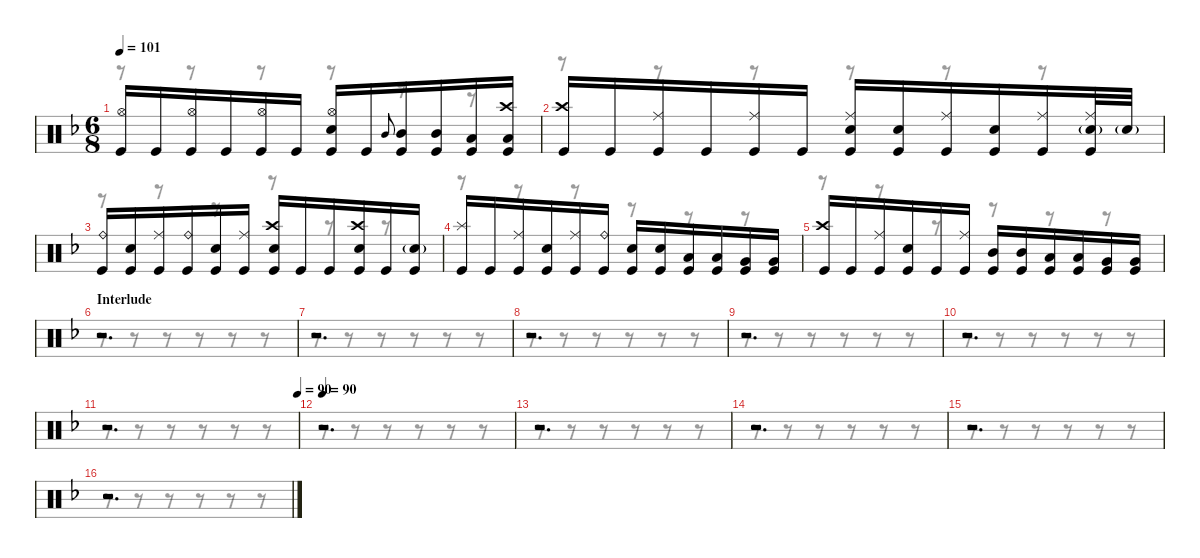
\defaultSystemsLayout 4
\hideDynamics
\bracketExtendMode nobrackets
\singleTrackTrackNamePolicy hidden
\multiTrackTrackNamePolicy hidden
\otherSystemsTrackNameOrientation horizontal
\track ("M. Lopez" "drm.") {instrument percussion}
\staff {score}
\articulation defaults
\voice
\ts (6 8)
\tempo 101
\clef neutral
\ks dminor
("Hi-Hat (open)"{acc forcenatural} "Kick (hit)"{acc forcenatural}).16{dy f beam Up} "Kick (hit)"{acc forcenatural}.16{beam Up} ("Hi-Hat (open)"{acc forcenatural} "Kick (hit)"{acc forcenatural}).16{beam Up} "Kick (hit)"{acc forcenatural}.16{beam Up} ("Hi-Hat (open)"{acc forcenatural} "Kick (hit)"{acc forcenatural}).16{beam Up} "Kick (hit)"{acc forcenatural}.16{beam Up} ("Hi-Hat (open)"{acc forcenatural} "Snare (hit) 2"{acc forcenatural} "Kick (hit)"{acc forcenatural}).16{beam Up} "Kick (hit)"{acc forcenatural}.16{beam Up} "Mid Tom (hit)"{acc forcenatural}.8{gr onbeat dy mf beam Up} ("Mid Tom (hit)"{acc forcenatural} "Kick (hit)"{acc forcenatural}).16{dy f beam Up} ("Mid Tom (hit)"{acc forcenatural} "Kick (hit)"{acc forcenatural}).16{beam Up} ("Low Tom (hit)"{acc forcenatural} "Kick (hit)"{acc forcenatural}).16{beam Up} ("Crash high (hit)"{acc forcenatural} "Low Tom (hit)"{acc forcenatural} "Kick (hit)"{acc forcenatural}).16{beam Up} |
("Crash high (hit)"{acc forcenatural} "Kick (hit)"{acc forcenatural}).16{beam Up} "Kick (hit)"{acc forcenatural}.16{beam Up} ("Ride (middle)"{acc forcenatural} "Kick (hit)"{acc forcenatural}).16{beam Up} "Kick (hit)"{acc forcenatural}.16{beam Up} ("Ride (middle)"{acc forcenatural} "Kick (hit)"{acc forcenatural}).16{beam Up} "Kick (hit)"{acc forcenatural}.16{beam Up} ("Ride (middle)"{acc forcenatural} "Snare (hit) 2"{acc forcenatural} "Kick (hit)"{acc forcenatural}).16{beam Up} ("Snare (hit) 2"{acc forcenatural} "Kick (hit)"{acc forcenatural}).16{beam Up} ("Ride (middle)"{acc forcenatural} "Kick (hit)"{acc forcenatural}).16{beam Up} ("Snare (hit) 2"{acc forcenatural} "Kick (hit)"{acc forcenatural}).16{beam Up} ("Ride (middle)"{acc forcenatural} "Kick (hit)"{acc forcenatural}).16{beam Up} ("Ride (middle)"{acc forcenatural} "Snare (hit) 2"{g acc forcenatural} "Kick (hit)"{acc forcenatural}).32{beam Up} "Snare (hit) 2"{g acc forcenatural}.32{dy mf beam Up} |
("Ride (bell)"{acc forcenatural} "Kick (hit)"{acc forcenatural}).16{dy f beam Up} ("Snare (hit) 2"{acc forcenatural} "Kick (hit)"{acc forcenatural}).16{beam Up} ("Ride (middle)"{acc forcenatural} "Kick (hit)"{acc forcenatural}).16{beam Up} ("Ride (bell)"{acc forcenatural} "Kick (hit)"{acc forcenatural}).16{beam Up} ("Snare (hit) 2"{acc forcenatural} "Kick (hit)"{acc forcenatural}).16{beam Up} ("Ride (middle)"{acc forcenatural} "Kick (hit)"{acc forcenatural}).16{beam Up} ("Crash high (hit)"{acc forcenatural} "Snare (hit) 2"{acc forcenatural} "Kick (hit)"{acc forcenatural}).16{beam Up} "Kick (hit)"{acc forcenatural}.16{beam Up} "Kick (hit)"{acc forcenatural}.16{beam Up} ("Crash high (hit)"{acc forcenatural} "Snare (hit) 2"{acc forcenatural} "Kick (hit)"{acc forcenatural}).16{beam Up} "Kick (hit)"{acc forcenatural}.16{beam Up} ("Snare (hit) 2"{g acc forcenatural} "Kick (hit)"{acc forcenatural}).16{beam Up} |
("Splash (hit)"{acc forcenatural} "Kick (hit)"{acc forcenatural}).16{beam Up} "Kick (hit)"{acc forcenatural}.16{beam Up} ("Ride (middle)"{acc forcenatural} "Kick (hit)"{acc forcenatural}).16{beam Up} ("Snare (hit) 2"{acc forcenatural} "Kick (hit)"{acc forcenatural}).16{beam Up} ("Ride (middle)"{acc forcenatural} "Kick (hit)"{acc forcenatural}).16{beam Up} ("Ride (bell)"{acc forcenatural} "Kick (hit)"{acc forcenatural}).16{beam Up} ("Snare (hit) 2"{acc forcenatural} "Kick (hit)"{acc forcenatural}).16{beam Up} ("Snare (hit) 2"{acc forcenatural} "Kick (hit)"{acc forcenatural}).16{beam Up} ("Low Tom (hit)"{acc forcenatural} "Kick (hit)"{acc forcenatural}).16{beam Up} ("Low Tom (hit)"{acc forcenatural} "Kick (hit)"{acc forcenatural}).16{beam Up} ("Very Low Tom (hit)"{acc forcenatural} "Kick (hit)"{acc forcenatural}).16{beam Up} ("Very Low Tom (hit)"{acc forcenatural} "Kick (hit)"{acc forcenatural}).16{beam Up} |
("Crash high (hit)"{acc forcenatural} "Kick (hit)"{acc forcenatural}).16{beam Up} "Kick (hit)"{acc forcenatural}.16{beam Up} ("Ride (middle)"{acc forcenatural} "Kick (hit)"{acc forcenatural}).16{beam Up} ("Snare (hit) 2"{acc forcenatural} "Kick (hit)"{acc forcenatural}).16{dy mf beam Up} "Kick (hit)"{acc forcenatural}.16{dy f beam Up} ("Ride (middle)"{acc forcenatural} "Kick (hit)"{acc forcenatural}).16{dy mf beam Up} ("Mid Tom (hit)"{acc forcenatural} "Kick (hit)"{acc forcenatural}).16{beam Up} ("Mid Tom (hit)"{acc forcenatural} "Kick (hit)"{acc forcenatural}).16{beam Up} ("Low Tom (hit)"{acc forcenatural} "Kick (hit)"{acc forcenatural}).16{beam Up} ("Low Tom (hit)"{acc forcenatural} "Kick (hit)"{acc forcenatural}).16{beam Up} ("Very Low Tom (hit)"{acc forcenatural} "Kick (hit)"{acc forcenatural}).16{beam Up} ("Very Low Tom (hit)"{acc forcenatural} "Kick (hit)"{acc forcenatural}).16{beam Up} |
\section ("" "Interlude")
r.2{d beam Up} |
r.2{d beam Up} |
r.2{d beam Up} |
r.2{d beam Up} |
r.2{d beam Up} |
\tempo (90 1)
r.2{d beam Up} |
\tempo 90
r.2{d beam Up} |
r.2{d beam Up} |
r.2{d beam Up} |
r.2{d beam Up} |
r.2{d beam Up}
\voice
\clef neutral
\ottava regular
\simile none
\ks dminor
r.8{dy mf beam Down} r.8{beam Down} r.8{beam Down} r.8{beam Down} r.8{beam Down} r.8{beam Down} |
r.8{beam Down} r.8{beam Down} r.8{beam Down} r.8{beam Down} r.8{beam Down} r.8{beam Down} |
r.8{beam Down} r.8{beam Down} r.8{beam Down} r.8{beam Down} r.8{beam Down} r.8{beam Down} |
r.8{beam Down} r.8{beam Down} r.8{beam Down} r.8{beam Down} r.8{beam Down} r.8{beam Down} |
r.8{beam Down} r.8{beam Down} r.8{beam Down} r.8{beam Down} r.8{beam Down} r.8{beam Down} |
r.8{beam Down} r.8{beam Down} r.8{beam Down} r.8{beam Down} r.8{beam Down} r.8{beam Down} |
r.8{beam Down} r.8{beam Down} r.8{beam Down} r.8{beam Down} r.8{beam Down} r.8{beam Down} |
r.8{beam Down} r.8{beam Down} r.8{beam Down} r.8{beam Down} r.8{beam Down} r.8{beam Down} |
r.8{beam Down} r.8{beam Down} r.8{beam Down} r.8{beam Down} r.8{beam Down} r.8{beam Down} |
r.8{beam Down} r.8{beam Down} r.8{beam Down} r.8{beam Down} r.8{beam Down} r.8{beam Down} |
r.8{beam Down} r.8{beam Down} r.8{beam Down} r.8{beam Down} r.8{beam Down} r.8{beam Down} |
r.8{beam Down} r.8{beam Down} r.8{beam Down} r.8{beam Down} r.8{beam Down} r.8{beam Down} |
r.8{beam Down} r.8{beam Down} r.8{beam Down} r.8{beam Down} r.8{beam Down} r.8{beam Down} |
r.8{beam Down} r.8{beam Down} r.8{beam Down} r.8{beam Down} r.8{beam Down} r.8{beam Down} |
r.8{beam Down} r.8{beam Down} r.8{beam Down} r.8{beam Down} r.8{beam Down} r.8{beam Down} |
r.8{beam Down} r.8{beam Down} r.8{beam Down} r.8{beam Down} r.8{beam Down} r.8{beam Down}
